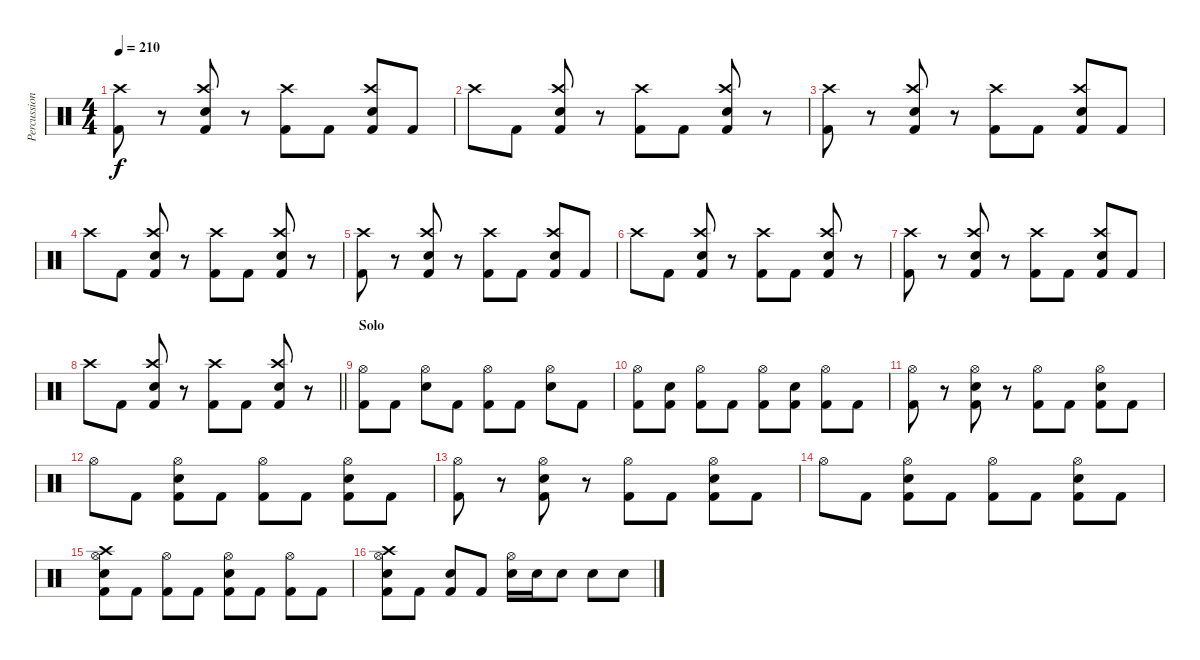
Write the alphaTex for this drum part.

\track ("Percussion" "Percussion") {instrument percussion}
\staff {score}
\articulation defaults
\ts (4 4)
\tempo 210
\clef neutral
\ks c
("Kick (hit) 2" "Crash high (hit)").8{dy f} r.8 ("Kick (hit) 2" "Electric Snare (hit)" "Crash high (hit)").8 r.8 ("Kick (hit) 2" "Crash high (hit)").8 "Kick (hit) 2".8 ("Kick (hit) 2" "Electric Snare (hit)" "Crash high (hit)").8 "Kick (hit) 2".8 |
"Crash high (hit)".8 "Kick (hit) 2".8 ("Kick (hit) 2" "Electric Snare (hit)" "Crash high (hit)").8 r.8 ("Kick (hit) 2" "Crash high (hit)").8 "Kick (hit) 2".8 ("Kick (hit) 2" "Electric Snare (hit)" "Crash high (hit)").8 r.8 |
("Kick (hit) 2" "Crash high (hit)").8 r.8 ("Kick (hit) 2" "Electric Snare (hit)" "Crash high (hit)").8 r.8 ("Kick (hit) 2" "Crash high (hit)").8 "Kick (hit) 2".8 ("Kick (hit) 2" "Electric Snare (hit)" "Crash high (hit)").8 "Kick (hit) 2".8 |
"Crash high (hit)".8 "Kick (hit) 2".8 ("Kick (hit) 2" "Electric Snare (hit)" "Crash high (hit)").8 r.8 ("Kick (hit) 2" "Crash high (hit)").8 "Kick (hit) 2".8 ("Kick (hit) 2" "Electric Snare (hit)" "Crash high (hit)").8 r.8 |
("Kick (hit) 2" "Crash high (hit)").8 r.8 ("Kick (hit) 2" "Electric Snare (hit)" "Crash high (hit)").8 r.8 ("Kick (hit) 2" "Crash high (hit)").8 "Kick (hit) 2".8 ("Kick (hit) 2" "Electric Snare (hit)" "Crash high (hit)").8 "Kick (hit) 2".8 |
"Crash high (hit)".8 "Kick (hit) 2".8 ("Kick (hit) 2" "Electric Snare (hit)" "Crash high (hit)").8 r.8 ("Kick (hit) 2" "Crash high (hit)").8 "Kick (hit) 2".8 ("Kick (hit) 2" "Electric Snare (hit)" "Crash high (hit)").8 r.8 |
("Kick (hit) 2" "Crash high (hit)").8 r.8 ("Kick (hit) 2" "Electric Snare (hit)" "Crash high (hit)").8 r.8 ("Kick (hit) 2" "Crash high (hit)").8 "Kick (hit) 2".8 ("Kick (hit) 2" "Electric Snare (hit)" "Crash high (hit)").8 "Kick (hit) 2".8 |
\barLineRight lightlight "Crash high (hit)".8 "Kick (hit) 2".8
("Kick (hit) 2" "Electric Snare (hit)" "Crash high (hit)").8 r.8 ("Kick (hit) 2" "Crash high (hit)").8 "Kick (hit) 2".8 ("Kick (hit) 2" "Electric Snare (hit)" "Crash high (hit)").8 r.8 |
\section ("" "Solo")
("Kick (hit) 2" "Hi-Hat (open)").8 "Kick (hit) 2".8 ("Electric Snare (hit)" "Hi-Hat (open)").8 "Kick (hit) 2".8 ("Kick (hit) 2" "Hi-Hat (open)").8 "Kick (hit) 2".8 ("Electric Snare (hit)" "Hi-Hat (open)").8 "Kick (hit) 2".8 |
("Kick (hit) 2" "Hi-Hat (open)").8 ("Kick (hit) 2" "Electric Snare (hit)").8 ("Kick (hit) 2" "Hi-Hat (open)").8 "Kick (hit) 2".8 ("Kick (hit) 2" "Hi-Hat (open)").8 ("Kick (hit) 2" "Electric Snare (hit)").8 ("Kick (hit) 2" "Hi-Hat (open)").8 "Kick (hit) 2".8 |
("Kick (hit) 2" "Hi-Hat (open)").8 r.8 ("Kick (hit) 2" "Electric Snare (hit)" "Hi-Hat (open)").8 r.8 ("Kick (hit) 2" "Hi-Hat (open)").8 "Kick (hit) 2".8 ("Kick (hit) 2" "Electric Snare (hit)" "Hi-Hat (open)").8 "Kick (hit) 2".8 |
"Hi-Hat (open)".8 "Kick (hit) 2".8 ("Kick (hit) 2" "Electric Snare (hit)" "Hi-Hat (open)").8 "Kick (hit) 2".8 ("Kick (hit) 2" "Hi-Hat (open)").8 "Kick (hit) 2".8 ("Kick (hit) 2" "Electric Snare (hit)" "Hi-Hat (open)").8 "Kick (hit) 2".8 |
("Kick (hit) 2" "Hi-Hat (open)").8 r.8 ("Kick (hit) 2" "Electric Snare (hit)" "Hi-Hat (open)").8 r.8 ("Kick (hit) 2" "Hi-Hat (open)").8 "Kick (hit) 2".8 ("Kick (hit) 2" "Electric Snare (hit)" "Hi-Hat (open)").8 "Kick (hit) 2".8 |
"Hi-Hat (open)".8 "Kick (hit) 2".8 ("Kick (hit) 2" "Electric Snare (hit)" "Hi-Hat (open)").8 "Kick (hit) 2".8 ("Kick (hit) 2" "Hi-Hat (open)").8 "Kick (hit) 2".8 ("Kick (hit) 2" "Electric Snare (hit)" "Hi-Hat (open)").8 "Kick (hit) 2".8 |
("Kick (hit) 2" "Electric Snare (hit)" "Hi-Hat (open)" "Crash high (hit)").8 "Kick (hit) 2".8 ("Kick (hit) 2" "Hi-Hat (open)").8 "Kick (hit) 2".8 ("Kick (hit) 2" "Electric Snare (hit)" "Hi-Hat (open)").8 "Kick (hit) 2".8 ("Kick (hit) 2" "Hi-Hat (open)").8 "Kick (hit) 2".8 |
("Kick (hit) 2" "Electric Snare (hit)" "Hi-Hat (open)" "Crash high (hit)").8 "Kick (hit) 2".8 ("Kick (hit) 2" "Electric Snare (hit)").8 "Kick (hit) 2".8 ("Electric Snare (hit)" "Hi-Hat (open)").16 "Electric Snare (hit)".16 "Electric Snare (hit)".8 "Electric Snare (hit)".8 "Electric Snare (hit)".8
